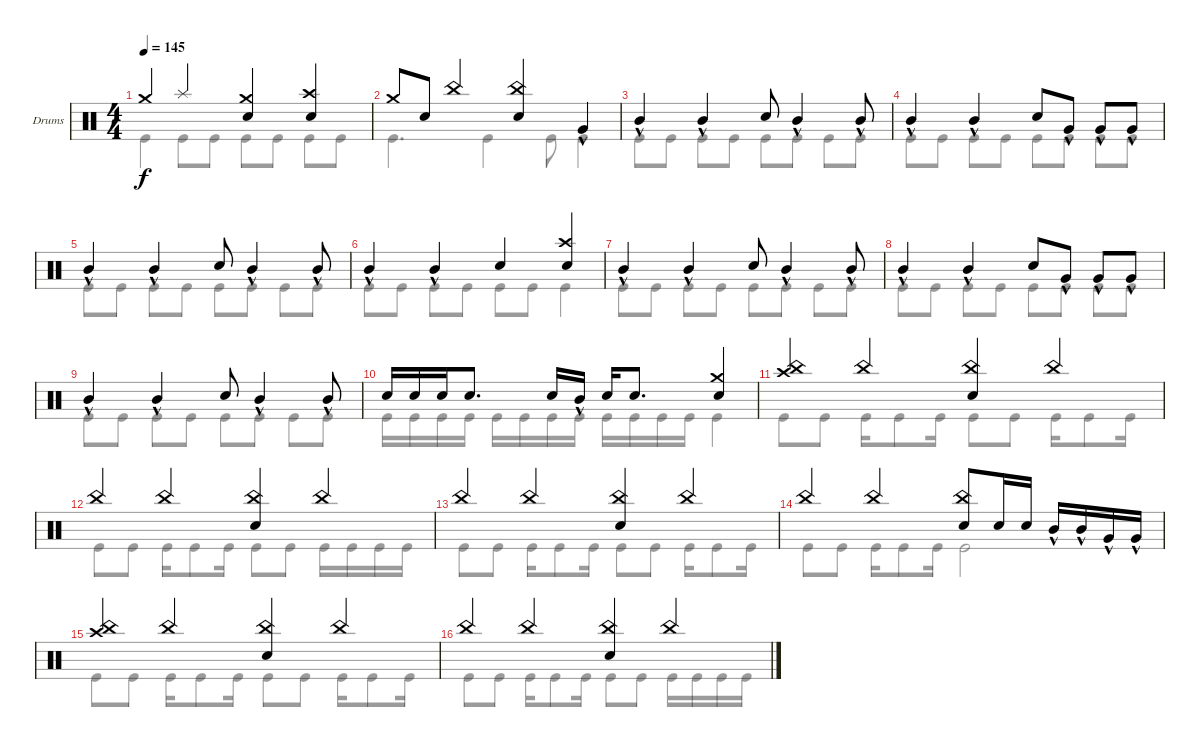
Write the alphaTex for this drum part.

\defaultSystemsLayout 4
\bracketExtendMode groupsimilarinstruments
\firstSystemTrackNameOrientation horizontal
\otherSystemsTrackNameOrientation horizontal
\track ("Drumkit" "Drums") {instrument percussion}
\staff {score}
\articulation defaults
\voice
\ts (4 4)
\tempo 145
\clef neutral
\scale
1.02648
\ks c "Crash medium (hit)".4{dy f} "Splash (hit)".4
("Crash medium (hit)" "Snare (hit) 2").4 ("Snare (hit) 2" "Crash high (hit)").4 |
\scale
0.973518 "Crash medium (hit)".8 "Snare (hit) 2".8 "China (hit)".4 ("Snare (hit) 2" "China (hit)").4 "Very Low Tom (hit)"{hac}.4 |
\scale
1.02648 "Mid Tom (hit)"{hac}.4 "Mid Tom (hit)"{hac}.4 "Snare (hit) 2".8 "Mid Tom (hit)"{hac}.4 "Mid Tom (hit)"{hac}.8 |
\scale
0.973518 "Mid Tom (hit)"{hac}.4 "Mid Tom (hit)"{hac}.4 "Snare (hit) 2".8 "Very Low Tom (hit)"{hac}.8 "Very Low Tom (hit)"{hac}.8 "Very Low Tom (hit)"{hac}.8 |
\scale
1.02648 "Mid Tom (hit)"{hac}.4 "Mid Tom (hit)"{hac}.4 "Snare (hit) 2".8 "Mid Tom (hit)"{hac}.4 "Mid Tom (hit)"{hac}.8 |
\scale
0.973518 "Mid Tom (hit)"{hac}.4 "Mid Tom (hit)"{hac}.4 "Snare (hit) 2".4 ("Snare (hit) 2" "Crash high (hit)").4 |
\scale
1.02648 "Mid Tom (hit)"{hac}.4 "Mid Tom (hit)"{hac}.4 "Snare (hit) 2".8 "Mid Tom (hit)"{hac}.4 "Mid Tom (hit)"{hac}.8 |
\scale
0.973518 "Mid Tom (hit)"{hac}.4 "Mid Tom (hit)"{hac}.4 "Snare (hit) 2".8 "Very Low Tom (hit)"{hac}.8 "Very Low Tom (hit)"{hac}.8 "Very Low Tom (hit)"{hac}.8 |
\scale
1.02648 "Mid Tom (hit)"{hac}.4 "Mid Tom (hit)"{hac}.4 "Snare (hit) 2".8 "Mid Tom (hit)"{hac}.4 "Mid Tom (hit)"{hac}.8 |
\scale
0.973518 "Snare (hit) 2".16 "Snare (hit) 2".16 "Snare (hit) 2".16 "Snare (hit) 2".8{d} "Snare (hit) 2".16 "Mid Tom (hit)"{hac}.16 "Snare (hit) 2".16 "Snare (hit) 2".8{d} ("Snare (hit) 2" "Crash medium (hit)").4 |
\scale
1.02648 ("Crash high (hit)" "China (hit)").4 "China (hit)".4 ("China (hit)" "Snare (hit) 2").4 "China (hit)".4 |
\scale
0.973518 "China (hit)".4 "China (hit)".4 ("China (hit)" "Snare (hit) 2").4 "China (hit)".4 |
\scale
1.02648 "China (hit)".4 "China (hit)".4 ("China (hit)" "Snare (hit) 2").4 "China (hit)".4 |
\scale
0.973518 "China (hit)".4 "China (hit)".4 ("China (hit)" "Snare (hit) 2").8 "Snare (hit) 2".16 "Snare (hit) 2".16 "Mid Tom (hit)"{hac}.16 "Mid Tom (hit)"{hac}.16 "Very Low Tom (hit)"{hac}.16 "Very Low Tom (hit)"{hac}.16 |
\scale
1.02648 ("Crash high (hit)" "China (hit)").4 "China (hit)".4 ("China (hit)" "Snare (hit) 2").4 "China (hit)".4 |
\scale
0.973518 "China (hit)".4 "China (hit)".4 ("China (hit)" "Snare (hit) 2").4 "China (hit)".4
\voice
\clef neutral
\ottava regular
\simile none
\scale
1.02648
\ks c "Kick (hit)".4{dy f} "Kick (hit)".8 "Kick (hit)".8 "Kick (hit)".8 "Kick (hit)".8 "Kick (hit)".8 "Kick (hit)".8
|
\scale
0.973518 "Kick (hit)".4{d} "Kick (hit)".4 "Kick (hit)".8 "Kick (hit)".4 |
\scale
1.02648 "Kick (hit)".8 "Kick (hit)".8 "Kick (hit)".8 "Kick (hit)".8 "Kick (hit)".8 "Kick (hit)".8 "Kick (hit)".8 "Kick (hit)".8 |
\scale
0.973518 "Kick (hit)".8 "Kick (hit)".8 "Kick (hit)".8 "Kick (hit)".8 "Kick (hit)".8 "Kick (hit)".8 "Kick (hit)".8 "Kick (hit)".8 |
\scale
1.02648 "Kick (hit)".8 "Kick (hit)".8 "Kick (hit)".8 "Kick (hit)".8 "Kick (hit)".8 "Kick (hit)".8 "Kick (hit)".8 "Kick (hit)".8 |
\scale
0.973518 "Kick (hit)".8 "Kick (hit)".8 "Kick (hit)".8 "Kick (hit)".8 "Kick (hit)".8 "Kick (hit)".8 "Kick (hit)".4 |
\scale
1.02648 "Kick (hit)".8 "Kick (hit)".8 "Kick (hit)".8 "Kick (hit)".8 "Kick (hit)".8 "Kick (hit)".8 "Kick (hit)".8 "Kick (hit)".8 |
\scale
0.973518 "Kick (hit)".8 "Kick (hit)".8 "Kick (hit)".8 "Kick (hit)".8 "Kick (hit)".8 "Kick (hit)".8 "Kick (hit)".8 "Kick (hit)".8 |
\scale
1.02648 "Kick (hit)".8 "Kick (hit)".8 "Kick (hit)".8 "Kick (hit)".8 "Kick (hit)".8 "Kick (hit)".8 "Kick (hit)".8 "Kick (hit)".8 |
\scale
0.973518 "Kick (hit)".16 "Kick (hit)".16 "Kick (hit)".16 "Kick (hit)".16 "Kick (hit)".16 "Kick (hit)".16 "Kick (hit)".16 "Kick (hit)".16 "Kick (hit)".16 "Kick (hit)".16 "Kick (hit)".16 "Kick (hit)".16 "Kick (hit)".4 |
\scale
1.02648 "Kick (hit)".8 "Kick (hit)".8 "Kick (hit)".16 "Kick (hit)".8 "Kick (hit)".16 "Kick (hit)".8 "Kick (hit)".8 "Kick (hit)".16 "Kick (hit)".8 "Kick (hit)".16 |
\scale
0.973518 "Kick (hit)".8 "Kick (hit)".8 "Kick (hit)".16 "Kick (hit)".8 "Kick (hit)".16 "Kick (hit)".8 "Kick (hit)".8 "Kick (hit)".16 "Kick (hit)".16 "Kick (hit)".16 "Kick (hit)".16 |
\scale
1.02648 "Kick (hit)".8 "Kick (hit)".8 "Kick (hit)".16 "Kick (hit)".8 "Kick (hit)".16 "Kick (hit)".8 "Kick (hit)".8 "Kick (hit)".16 "Kick (hit)".8 "Kick (hit)".16 |
\scale
0.973518 "Kick (hit)".8 "Kick (hit)".8 "Kick (hit)".16 "Kick (hit)".8 "Kick (hit)".16 "Kick (hit)".2 |
\scale
1.02648 "Kick (hit)".8 "Kick (hit)".8 "Kick (hit)".16 "Kick (hit)".8 "Kick (hit)".16 "Kick (hit)".8 "Kick (hit)".8 "Kick (hit)".16 "Kick (hit)".8 "Kick (hit)".16 |
\scale
0.973518 "Kick (hit)".8 "Kick (hit)".8 "Kick (hit)".16 "Kick (hit)".8 "Kick (hit)".16 "Kick (hit)".8 "Kick (hit)".8 "Kick (hit)".16 "Kick (hit)".16 "Kick (hit)".16 "Kick (hit)".16
